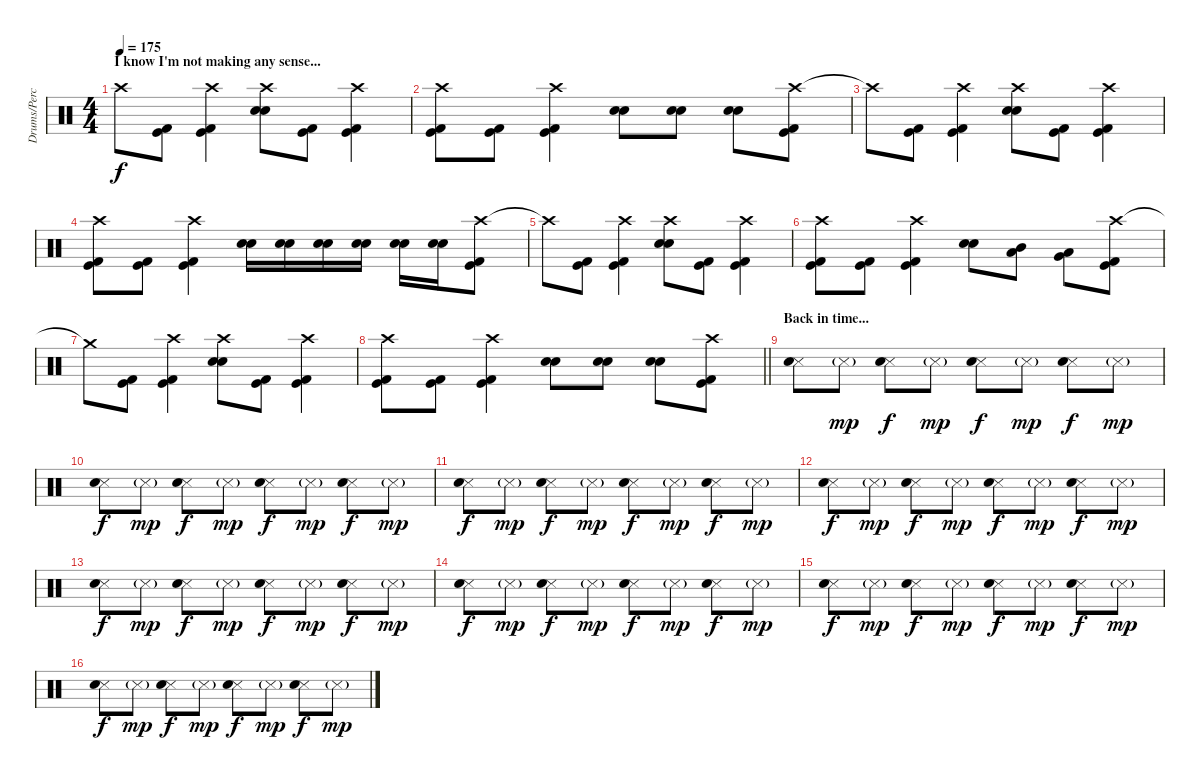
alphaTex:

\track ("Drums/Percussion" "Drums/Perc") {instrument percussion}
\staff {score}
\articulation defaults
\ts (4 4)
\section ("" "I know I'm not making any sense...")
\tempo 175
\clef neutral
\ks c "Crash high (hit)"{t}.8{dy f}
("Kick (hit)" "Kick (hit) 2").8 ("Crash high (hit)" "Kick (hit)" "Kick (hit) 2").4 ("Crash high (hit)" "Electric Snare (hit)" "Snare (hit) 2").8 ("Kick (hit)" "Kick (hit) 2").8 ("Crash high (hit)" "Kick (hit)" "Kick (hit) 2").4 |
("Crash high (hit)" "Kick (hit)" "Kick (hit) 2").8 ("Kick (hit)" "Kick (hit) 2").8 ("Crash high (hit)" "Kick (hit)" "Kick (hit) 2").4 ("Electric Snare (hit)" "Snare (hit) 2").8 ("Electric Snare (hit)" "Snare (hit) 2").8 ("Electric Snare (hit)" "Snare (hit) 2").8 ("Crash high (hit)" "Kick (hit)" "Kick (hit) 2").8 |
"Crash high (hit)"{t}.8 ("Kick (hit)" "Kick (hit) 2").8 ("Crash high (hit)" "Kick (hit)" "Kick (hit) 2").4 ("Crash high (hit)" "Electric Snare (hit)" "Snare (hit) 2").8 ("Kick (hit)" "Kick (hit) 2").8 ("Crash high (hit)" "Kick (hit)" "Kick (hit) 2").4 |
("Crash high (hit)" "Kick (hit)" "Kick (hit) 2").8 ("Kick (hit)" "Kick (hit) 2").8 ("Crash high (hit)" "Kick (hit)" "Kick (hit) 2").4 ("Electric Snare (hit)" "Snare (hit) 2").16 ("Electric Snare (hit)" "Snare (hit) 2").16 ("Electric Snare (hit)" "Snare (hit) 2").16 ("Electric Snare (hit)" "Snare (hit) 2").16 ("Electric Snare (hit)" "Snare (hit) 2").16 ("Electric Snare (hit)" "Snare (hit) 2").16 ("Crash high (hit)" "Kick (hit)" "Kick (hit) 2").8 |
"Crash high (hit)"{t}.8 ("Kick (hit)" "Kick (hit) 2").8 ("Crash high (hit)" "Kick (hit)" "Kick (hit) 2").4 ("Crash high (hit)" "Electric Snare (hit)" "Snare (hit) 2").8 ("Kick (hit)" "Kick (hit) 2").8 ("Crash high (hit)" "Kick (hit)" "Kick (hit) 2").4 |
("Crash high (hit)" "Kick (hit)" "Kick (hit) 2").8 ("Kick (hit)" "Kick (hit) 2").8 ("Crash high (hit)" "Kick (hit)" "Kick (hit) 2").4 ("Electric Snare (hit)" "Snare (hit) 2").8 ("Low Tom (hit)" "Mid Tom (hit)").8 ("Very Low Tom (hit)" "Low Tom (hit)").8 ("Crash high (hit)" "Kick (hit)" "Kick (hit) 2").8 |
"Crash medium (hit)"{t}.8 ("Kick (hit)" "Kick (hit) 2").8 ("Crash high (hit)" "Kick (hit)" "Kick (hit) 2").4 ("Crash high (hit)" "Electric Snare (hit)" "Snare (hit) 2").8 ("Kick (hit)" "Kick (hit) 2").8 ("Crash high (hit)" "Kick (hit)" "Kick (hit) 2").4 |
\barLineRight lightlight
("Crash high (hit)" "Kick (hit)" "Kick (hit) 2").8 ("Kick (hit)" "Kick (hit) 2").8 ("Crash high (hit)" "Kick (hit)" "Kick (hit) 2").4 ("Electric Snare (hit)" "Snare (hit) 2").8 ("Electric Snare (hit)" "Snare (hit) 2").8 ("Electric Snare (hit)" "Snare (hit) 2").8 ("Crash high (hit)" "Kick (hit)" "Kick (hit) 2").8 |
\section ("" "Back in time...")
("Metronome (hit)" "Metronome (bell)").8 "Metronome (hit)"{g}.8{dy mp} ("Metronome (hit)" "Metronome (bell)").8{dy f} "Metronome (hit)"{g}.8{dy mp} ("Metronome (hit)" "Metronome (bell)").8{dy f} "Metronome (hit)"{g}.8{dy mp} ("Metronome (hit)" "Metronome (bell)").8{dy f} "Metronome (hit)"{g}.8{dy mp} |
("Metronome (hit)" "Metronome (bell)").8{dy f} "Metronome (hit)"{g}.8{dy mp} ("Metronome (hit)" "Metronome (bell)").8{dy f} "Metronome (hit)"{g}.8{dy mp} ("Metronome (hit)" "Metronome (bell)").8{dy f} "Metronome (hit)"{g}.8{dy mp} ("Metronome (hit)" "Metronome (bell)").8{dy f} "Metronome (hit)"{g}.8{dy mp} |
("Metronome (hit)" "Metronome (bell)").8{dy f} "Metronome (hit)"{g}.8{dy mp} ("Metronome (hit)" "Metronome (bell)").8{dy f} "Metronome (hit)"{g}.8{dy mp} ("Metronome (hit)" "Metronome (bell)").8{dy f} "Metronome (hit)"{g}.8{dy mp} ("Metronome (hit)" "Metronome (bell)").8{dy f} "Metronome (hit)"{g}.8{dy mp} |
("Metronome (hit)" "Metronome (bell)").8{dy f} "Metronome (hit)"{g}.8{dy mp} ("Metronome (hit)" "Metronome (bell)").8{dy f} "Metronome (hit)"{g}.8{dy mp} ("Metronome (hit)" "Metronome (bell)").8{dy f} "Metronome (hit)"{g}.8{dy mp} ("Metronome (hit)" "Metronome (bell)").8{dy f} "Metronome (hit)"{g}.8{dy mp} |
("Metronome (hit)" "Metronome (bell)").8{dy f} "Metronome (hit)"{g}.8{dy mp} ("Metronome (hit)" "Metronome (bell)").8{dy f} "Metronome (hit)"{g}.8{dy mp} ("Metronome (hit)" "Metronome (bell)").8{dy f} "Metronome (hit)"{g}.8{dy mp} ("Metronome (hit)" "Metronome (bell)").8{dy f} "Metronome (hit)"{g}.8{dy mp} |
("Metronome (hit)" "Metronome (bell)").8{dy f} "Metronome (hit)"{g}.8{dy mp} ("Metronome (hit)" "Metronome (bell)").8{dy f} "Metronome (hit)"{g}.8{dy mp} ("Metronome (hit)" "Metronome (bell)").8{dy f} "Metronome (hit)"{g}.8{dy mp} ("Metronome (hit)" "Metronome (bell)").8{dy f} "Metronome (hit)"{g}.8{dy mp} |
("Metronome (hit)" "Metronome (bell)").8{dy f} "Metronome (hit)"{g}.8{dy mp} ("Metronome (hit)" "Metronome (bell)").8{dy f} "Metronome (hit)"{g}.8{dy mp} ("Metronome (hit)" "Metronome (bell)").8{dy f} "Metronome (hit)"{g}.8{dy mp} ("Metronome (hit)" "Metronome (bell)").8{dy f} "Metronome (hit)"{g}.8{dy mp} |
("Metronome (hit)" "Metronome (bell)").8{dy f} "Metronome (hit)"{g}.8{dy mp} ("Metronome (hit)" "Metronome (bell)").8{dy f} "Metronome (hit)"{g}.8{dy mp} ("Metronome (hit)" "Metronome (bell)").8{dy f} "Metronome (hit)"{g}.8{dy mp} ("Metronome (hit)" "Metronome (bell)").8{dy f} "Metronome (hit)"{g}.8{dy mp}
